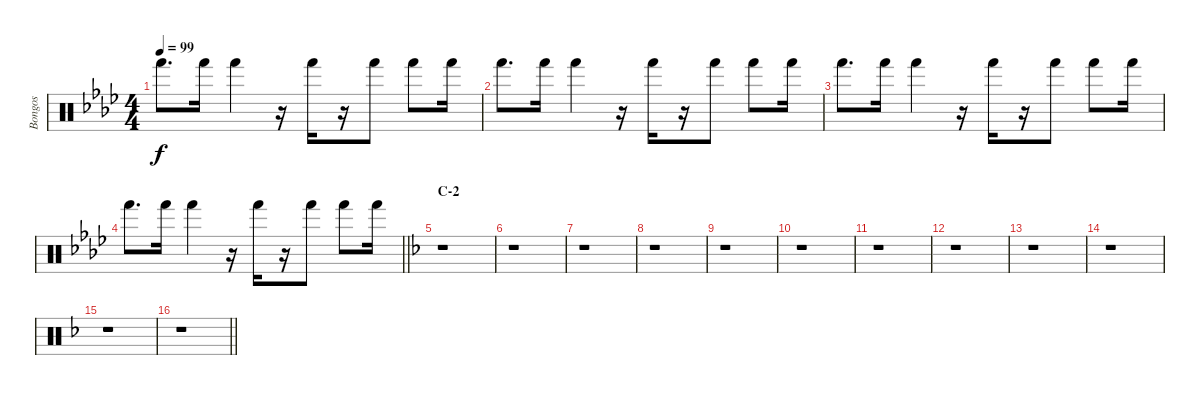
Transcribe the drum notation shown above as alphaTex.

\track ("Bongos" "Bongos") {instrument percussion}
\staff {score}
\articulation defaults
\ts (4 4)
\tempo 99
\clef neutral
\ks ab "Hand (hit)".8{d dy f} "Hand (hit)".16 "Hand (hit)".4
r.16 "Hand (hit)".16 r.16 "Hand (hit)".8 "Hand (hit)".8 "Hand (hit)".16 |
"Hand (hit)".8{d} "Hand (hit)".16 "Hand (hit)".4 r.16 "Hand (hit)".16 r.16 "Hand (hit)".8 "Hand (hit)".8 "Hand (hit)".16 |
"Hand (hit)".8{d} "Hand (hit)".16 "Hand (hit)".4 r.16 "Hand (hit)".16 r.16 "Hand (hit)".8 "Hand (hit)".8 "Hand (hit)".16 |
\barLineRight lightlight "Hand (hit)".8{d} "Hand (hit)".16 "Hand (hit)".4
r.16 "Hand (hit)".16 r.16 "Hand (hit)".8 "Hand (hit)".8 "Hand (hit)".16 |
\section ("" "C-2")
\ks f
r.1 |
r.1 |
r.1 |
r.1 |
r.1 |
r.1 |
r.1 |
r.1 |
r.1 |
r.1 |
r.1 |
\barLineRight lightlight
r.1
